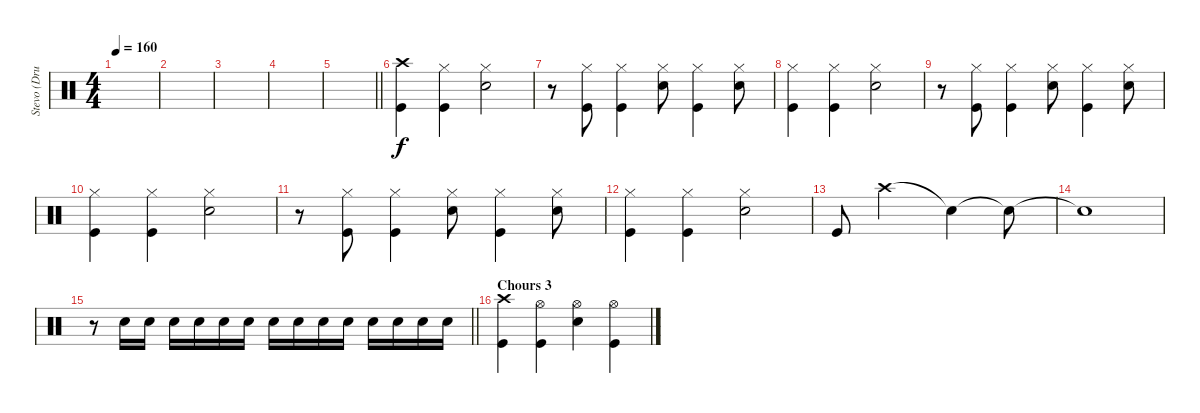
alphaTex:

\track ("Stevo (Drums)" "Stevo (Dru") {instrument percussion}
\staff {score}
\articulation defaults
\ts (4 4)
\tempo 160
\clef neutral
\ks c
|
|
|
|
\barLineRight lightlight
|
("Crash high (hit)" "Kick (hit)").4 ("Hi-Hat (closed)" "Kick (hit)").4 ("Hi-Hat (closed)" "Electric Snare (hit)").2 |
r.8 ("Hi-Hat (closed)" "Kick (hit)").8 ("Hi-Hat (closed)" "Kick (hit)").4 ("Hi-Hat (closed)" "Electric Snare (hit)").8 ("Hi-Hat (closed)" "Kick (hit)").4 ("Hi-Hat (closed)" "Electric Snare (hit)").8 |
("Hi-Hat (closed)" "Kick (hit)").4 ("Hi-Hat (closed)" "Kick (hit)").4 ("Hi-Hat (closed)" "Electric Snare (hit)").2 |
r.8 ("Hi-Hat (closed)" "Kick (hit)").8 ("Hi-Hat (closed)" "Kick (hit)").4 ("Hi-Hat (closed)" "Electric Snare (hit)").8 ("Hi-Hat (closed)" "Kick (hit)").4 ("Hi-Hat (closed)" "Electric Snare (hit)").8 |
("Hi-Hat (closed)" "Kick (hit)").4 ("Hi-Hat (closed)" "Kick (hit)").4 ("Hi-Hat (closed)" "Electric Snare (hit)").2 |
r.8 ("Hi-Hat (closed)" "Kick (hit)").8 ("Hi-Hat (closed)" "Kick (hit)").4 ("Hi-Hat (closed)" "Electric Snare (hit)").8 ("Hi-Hat (closed)" "Kick (hit)").4 ("Hi-Hat (closed)" "Electric Snare (hit)").8 |
("Hi-Hat (closed)" "Kick (hit)").4 ("Hi-Hat (closed)" "Kick (hit)").4 ("Hi-Hat (closed)" "Electric Snare (hit)").2 |
"Kick (hit)".8 "Crash high (hit)".2 "Snare (hit)"{t}.4 "Snare (hit)"{t}.8 |
"Snare (hit)"{t}.1 |
\barLineRight lightlight
r.8 "Electric Snare (hit)".16 "Electric Snare (hit)".16 "Electric Snare (hit)".16 "Electric Snare (hit)".16 "Electric Snare (hit)".16 "Electric Snare (hit)".16 "Electric Snare (hit)".16 "Electric Snare (hit)".16 "Electric Snare (hit)".16 "Electric Snare (hit)".16 "Electric Snare (hit)".16 "Electric Snare (hit)".16 "Electric Snare (hit)".16 "Electric Snare (hit)".16 |
\section ("" "Chours 3")
("Crash high (hit)" "Kick (hit)").4 ("Hi-Hat (open)" "Kick (hit)").4 ("Hi-Hat (open)" "Electric Snare (hit)").4 ("Hi-Hat (open)" "Kick (hit)").4
